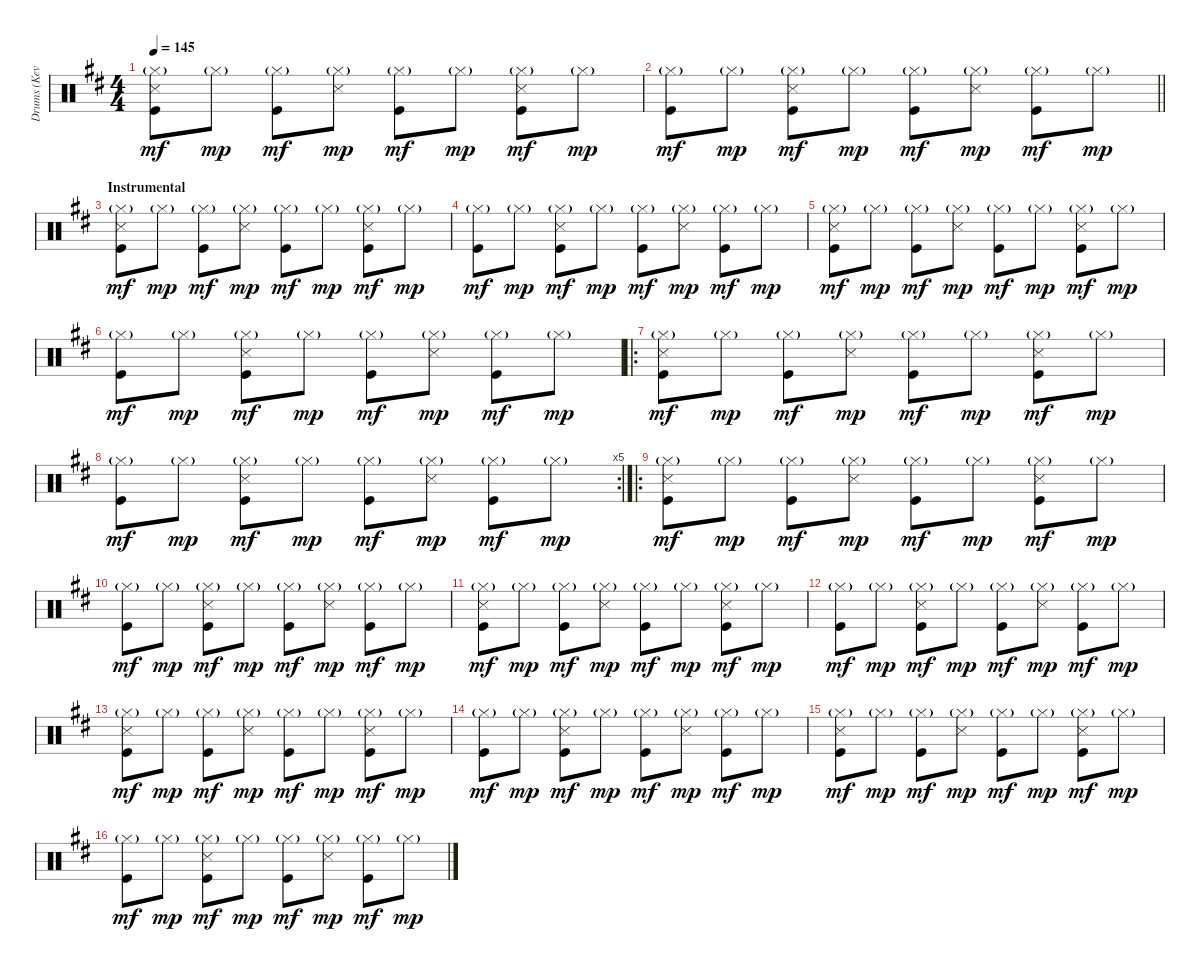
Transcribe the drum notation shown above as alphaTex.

\track ("Drums (Kevin Haskins)" "Drums (Kev") {instrument percussion}
\staff {score}
\articulation defaults
\ts (4 4)
\tempo 145
\clef neutral
\ks d
("Hi-Hat (closed)"{g} "Snare (side stick) 3" "Kick (hit)").8{dy mf} "Hi-Hat (closed)"{g}.8{dy mp} ("Hi-Hat (closed)"{g} "Kick (hit)").8{dy mf} ("Hi-Hat (closed)"{g} "Snare (side stick) 3").8{dy mp} ("Hi-Hat (closed)"{g} "Kick (hit)").8{dy mf} "Hi-Hat (closed)"{g}.8{dy mp} ("Hi-Hat (closed)"{g} "Snare (side stick) 3" "Kick (hit)").8{dy mf} "Hi-Hat (closed)"{g}.8{dy mp} |
\barLineRight lightlight
("Hi-Hat (closed)"{g} "Kick (hit)").8{dy mf} "Hi-Hat (closed)"{g}.8{dy mp} ("Hi-Hat (closed)"{g} "Snare (side stick) 3" "Kick (hit)").8{dy mf} "Hi-Hat (closed)"{g}.8{dy mp} ("Hi-Hat (closed)"{g} "Kick (hit)").8{dy mf} ("Hi-Hat (closed)"{g} "Snare (side stick) 3").8{dy mp} ("Hi-Hat (closed)"{g} "Kick (hit)").8{dy mf} "Hi-Hat (closed)"{g}.8{dy mp} |
\section ("" "Instrumental")
("Hi-Hat (closed)"{g} "Snare (side stick) 3" "Kick (hit)").8{dy mf} "Hi-Hat (closed)"{g}.8{dy mp} ("Hi-Hat (closed)"{g} "Kick (hit)").8{dy mf} ("Hi-Hat (closed)"{g} "Snare (side stick) 3").8{dy mp} ("Hi-Hat (closed)"{g} "Kick (hit)").8{dy mf} "Hi-Hat (closed)"{g}.8{dy mp} ("Hi-Hat (closed)"{g} "Snare (side stick) 3" "Kick (hit)").8{dy mf} "Hi-Hat (closed)"{g}.8{dy mp} |
("Hi-Hat (closed)"{g} "Kick (hit)").8{dy mf} "Hi-Hat (closed)"{g}.8{dy mp} ("Hi-Hat (closed)"{g} "Snare (side stick) 3" "Kick (hit)").8{dy mf} "Hi-Hat (closed)"{g}.8{dy mp} ("Hi-Hat (closed)"{g} "Kick (hit)").8{dy mf} ("Hi-Hat (closed)"{g} "Snare (side stick) 3").8{dy mp} ("Hi-Hat (closed)"{g} "Kick (hit)").8{dy mf} "Hi-Hat (closed)"{g}.8{dy mp} |
("Hi-Hat (closed)"{g} "Snare (side stick) 3" "Kick (hit)").8{dy mf} "Hi-Hat (closed)"{g}.8{dy mp} ("Hi-Hat (closed)"{g} "Kick (hit)").8{dy mf} ("Hi-Hat (closed)"{g} "Snare (side stick) 3").8{dy mp} ("Hi-Hat (closed)"{g} "Kick (hit)").8{dy mf} "Hi-Hat (closed)"{g}.8{dy mp} ("Hi-Hat (closed)"{g} "Snare (side stick) 3" "Kick (hit)").8{dy mf} "Hi-Hat (closed)"{g}.8{dy mp} |
("Hi-Hat (closed)"{g} "Kick (hit)").8{dy mf} "Hi-Hat (closed)"{g}.8{dy mp} ("Hi-Hat (closed)"{g} "Snare (side stick) 3" "Kick (hit)").8{dy mf} "Hi-Hat (closed)"{g}.8{dy mp} ("Hi-Hat (closed)"{g} "Kick (hit)").8{dy mf} ("Hi-Hat (closed)"{g} "Snare (side stick) 3").8{dy mp} ("Hi-Hat (closed)"{g} "Kick (hit)").8{dy mf} "Hi-Hat (closed)"{g}.8{dy mp} |
\ro
("Hi-Hat (closed)"{g} "Snare (side stick) 3" "Kick (hit)").8{dy mf} "Hi-Hat (closed)"{g}.8{dy mp} ("Hi-Hat (closed)"{g} "Kick (hit)").8{dy mf} ("Hi-Hat (closed)"{g} "Snare (side stick) 3").8{dy mp} ("Hi-Hat (closed)"{g} "Kick (hit)").8{dy mf} "Hi-Hat (closed)"{g}.8{dy mp} ("Hi-Hat (closed)"{g} "Snare (side stick) 3" "Kick (hit)").8{dy mf} "Hi-Hat (closed)"{g}.8{dy mp} |
\rc 5
("Hi-Hat (closed)"{g} "Kick (hit)").8{dy mf} "Hi-Hat (closed)"{g}.8{dy mp} ("Hi-Hat (closed)"{g} "Snare (side stick) 3" "Kick (hit)").8{dy mf} "Hi-Hat (closed)"{g}.8{dy mp} ("Hi-Hat (closed)"{g} "Kick (hit)").8{dy mf} ("Hi-Hat (closed)"{g} "Snare (side stick) 3").8{dy mp} ("Hi-Hat (closed)"{g} "Kick (hit)").8{dy mf} "Hi-Hat (closed)"{g}.8{dy mp} |
\ro
("Hi-Hat (closed)"{g} "Snare (side stick) 3" "Kick (hit)").8{dy mf} "Hi-Hat (closed)"{g}.8{dy mp} ("Hi-Hat (closed)"{g} "Kick (hit)").8{dy mf} ("Hi-Hat (closed)"{g} "Snare (side stick) 3").8{dy mp} ("Hi-Hat (closed)"{g} "Kick (hit)").8{dy mf} "Hi-Hat (closed)"{g}.8{dy mp} ("Hi-Hat (closed)"{g} "Snare (side stick) 3" "Kick (hit)").8{dy mf} "Hi-Hat (closed)"{g}.8{dy mp} |
("Hi-Hat (closed)"{g} "Kick (hit)").8{dy mf} "Hi-Hat (closed)"{g}.8{dy mp} ("Hi-Hat (closed)"{g} "Snare (side stick) 3" "Kick (hit)").8{dy mf} "Hi-Hat (closed)"{g}.8{dy mp} ("Hi-Hat (closed)"{g} "Kick (hit)").8{dy mf} ("Hi-Hat (closed)"{g} "Snare (side stick) 3").8{dy mp} ("Hi-Hat (closed)"{g} "Kick (hit)").8{dy mf} "Hi-Hat (closed)"{g}.8{dy mp} |
("Hi-Hat (closed)"{g} "Snare (side stick) 3" "Kick (hit)").8{dy mf} "Hi-Hat (closed)"{g}.8{dy mp} ("Hi-Hat (closed)"{g} "Kick (hit)").8{dy mf} ("Hi-Hat (closed)"{g} "Snare (side stick) 3").8{dy mp} ("Hi-Hat (closed)"{g} "Kick (hit)").8{dy mf} "Hi-Hat (closed)"{g}.8{dy mp} ("Hi-Hat (closed)"{g} "Snare (side stick) 3" "Kick (hit)").8{dy mf} "Hi-Hat (closed)"{g}.8{dy mp} |
("Hi-Hat (closed)"{g} "Kick (hit)").8{dy mf} "Hi-Hat (closed)"{g}.8{dy mp} ("Hi-Hat (closed)"{g} "Snare (side stick) 3" "Kick (hit)").8{dy mf} "Hi-Hat (closed)"{g}.8{dy mp} ("Hi-Hat (closed)"{g} "Kick (hit)").8{dy mf} ("Hi-Hat (closed)"{g} "Snare (side stick) 3").8{dy mp} ("Hi-Hat (closed)"{g} "Kick (hit)").8{dy mf} "Hi-Hat (closed)"{g}.8{dy mp} |
("Hi-Hat (closed)"{g} "Snare (side stick) 3" "Kick (hit)").8{dy mf} "Hi-Hat (closed)"{g}.8{dy mp} ("Hi-Hat (closed)"{g} "Kick (hit)").8{dy mf} ("Hi-Hat (closed)"{g} "Snare (side stick) 3").8{dy mp} ("Hi-Hat (closed)"{g} "Kick (hit)").8{dy mf} "Hi-Hat (closed)"{g}.8{dy mp} ("Hi-Hat (closed)"{g} "Snare (side stick) 3" "Kick (hit)").8{dy mf} "Hi-Hat (closed)"{g}.8{dy mp} |
("Hi-Hat (closed)"{g} "Kick (hit)").8{dy mf} "Hi-Hat (closed)"{g}.8{dy mp} ("Hi-Hat (closed)"{g} "Snare (side stick) 3" "Kick (hit)").8{dy mf} "Hi-Hat (closed)"{g}.8{dy mp} ("Hi-Hat (closed)"{g} "Kick (hit)").8{dy mf} ("Hi-Hat (closed)"{g} "Snare (side stick) 3").8{dy mp} ("Hi-Hat (closed)"{g} "Kick (hit)").8{dy mf} "Hi-Hat (closed)"{g}.8{dy mp} |
("Hi-Hat (closed)"{g} "Snare (side stick) 3" "Kick (hit)").8{dy mf} "Hi-Hat (closed)"{g}.8{dy mp} ("Hi-Hat (closed)"{g} "Kick (hit)").8{dy mf} ("Hi-Hat (closed)"{g} "Snare (side stick) 3").8{dy mp} ("Hi-Hat (closed)"{g} "Kick (hit)").8{dy mf} "Hi-Hat (closed)"{g}.8{dy mp} ("Hi-Hat (closed)"{g} "Snare (side stick) 3" "Kick (hit)").8{dy mf} "Hi-Hat (closed)"{g}.8{dy mp} |
("Hi-Hat (closed)"{g} "Kick (hit)").8{dy mf} "Hi-Hat (closed)"{g}.8{dy mp} ("Hi-Hat (closed)"{g} "Snare (side stick) 3" "Kick (hit)").8{dy mf} "Hi-Hat (closed)"{g}.8{dy mp} ("Hi-Hat (closed)"{g} "Kick (hit)").8{dy mf} ("Hi-Hat (closed)"{g} "Snare (side stick) 3").8{dy mp} ("Hi-Hat (closed)"{g} "Kick (hit)").8{dy mf} "Hi-Hat (closed)"{g}.8{dy mp}
